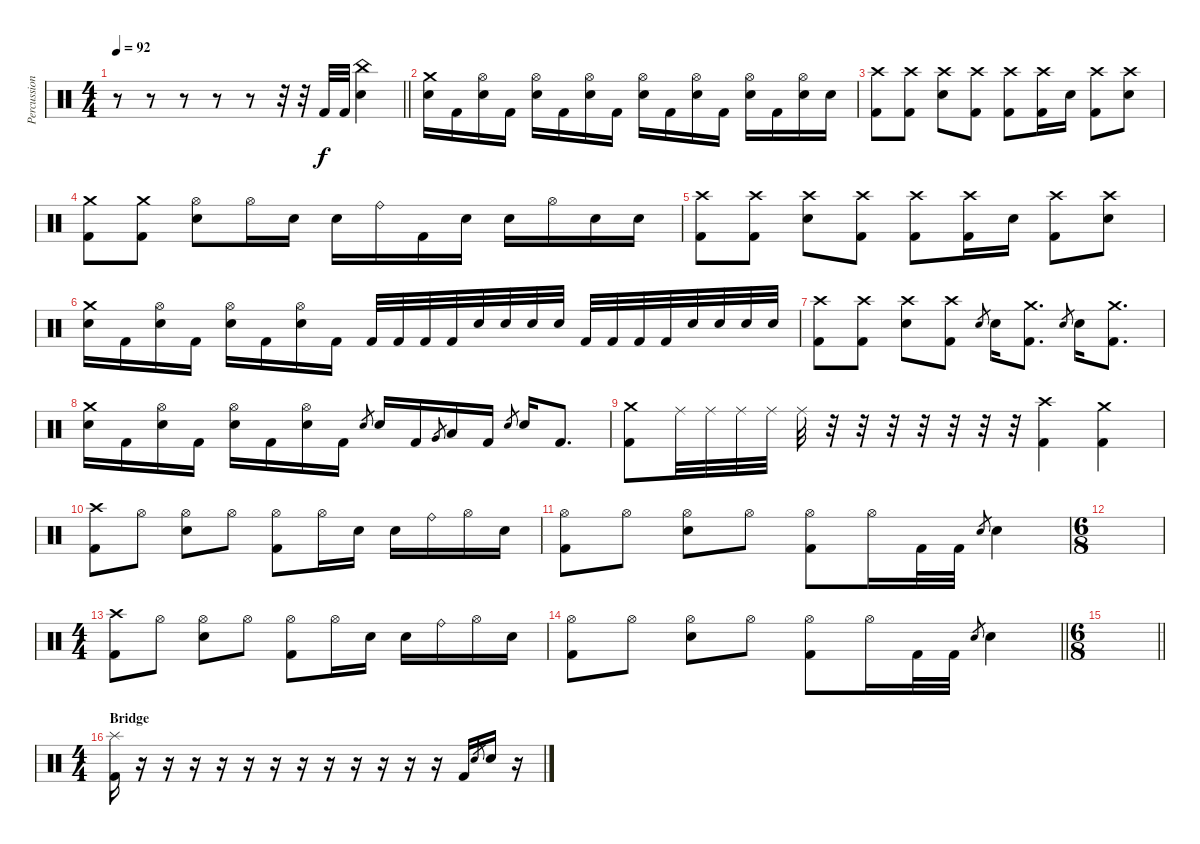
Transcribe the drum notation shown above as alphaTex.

\track ("Percussion" "Percussion") {instrument percussion}
\staff {score}
\articulation defaults
\ts (4 4)
\tempo 92
\clef neutral
\barLineRight lightlight
\ks c
r.8{dy f} r.8 r.8 r.8 r.8 r.32 r.32 "Kick (hit) 2".32 "Kick (hit) 2".32 ("China (hit)" "Electric Snare (hit)").4 |
("Crash medium (hit)" "Electric Snare (hit)").16 "Kick (hit) 2".16 ("Hi-Hat (open)" "Electric Snare (hit)").16 "Kick (hit) 2".16 ("Hi-Hat (open)" "Electric Snare (hit)").16 "Kick (hit) 2".16 ("Hi-Hat (open)" "Electric Snare (hit)").16 "Kick (hit) 2".16 ("Hi-Hat (open)" "Electric Snare (hit)").16 "Kick (hit) 2".16 ("Hi-Hat (open)" "Electric Snare (hit)").16 "Kick (hit) 2".16 ("Hi-Hat (open)" "Electric Snare (hit)").16 "Kick (hit) 2".16 ("Hi-Hat (open)" "Electric Snare (hit)").16 "Electric Snare (hit)".16 |
("Crash high (hit)" "Kick (hit) 2").8 ("Crash high (hit)" "Kick (hit) 2").8 ("Crash high (hit)" "Electric Snare (hit)").8 ("Crash high (hit)" "Kick (hit) 2").8 ("Crash high (hit)" "Kick (hit) 2").8 ("Crash high (hit)" "Kick (hit) 2").16 "Electric Snare (hit)".16 ("Crash high (hit)" "Kick (hit) 2").8 ("Crash high (hit)" "Electric Snare (hit)").8 |
("Crash medium (hit)" "Kick (hit) 2").8 ("Crash medium (hit)" "Kick (hit) 2").8 ("Hi-Hat (open)" "Electric Snare (hit)").8 "Hi-Hat (open)".16 "Electric Snare (hit)".16 "Electric Snare (hit)".16 "Ride (bell)".16 "Kick (hit) 2".16 "Electric Snare (hit)".16 "Electric Snare (hit)".16 "Hi-Hat (open)".16 "Electric Snare (hit)".16 "Electric Snare (hit)".16 |
("Crash high (hit)" "Kick (hit) 2").8 ("Crash high (hit)" "Kick (hit) 2").8 ("Crash high (hit)" "Electric Snare (hit)").8 ("Crash high (hit)" "Kick (hit) 2").8 ("Crash high (hit)" "Kick (hit) 2").8 ("Crash high (hit)" "Kick (hit) 2").16 "Electric Snare (hit)".16 ("Crash high (hit)" "Kick (hit) 2").8 ("Crash high (hit)" "Electric Snare (hit)").8 |
("Crash medium (hit)" "Electric Snare (hit)").16 "Kick (hit) 2".16 ("Hi-Hat (open)" "Electric Snare (hit)").16 "Kick (hit) 2".16 ("Hi-Hat (open)" "Electric Snare (hit)").16 "Kick (hit) 2".16 ("Hi-Hat (open)" "Electric Snare (hit)").16 "Kick (hit) 2".16 "Kick (hit) 2".32 "Kick (hit) 2".32 "Kick (hit) 2".32 "Kick (hit) 2".32 "Electric Snare (hit)".32 "Electric Snare (hit)".32 "Electric Snare (hit)".32 "Electric Snare (hit)".32 "Kick (hit) 2".32 "Kick (hit) 2".32 "Kick (hit) 2".32 "Kick (hit) 2".32 "Electric Snare (hit)".32 "Electric Snare (hit)".32 "Electric Snare (hit)".32 "Electric Snare (hit)".32 |
("Crash high (hit)" "Kick (hit) 2").8 ("Crash high (hit)" "Kick (hit) 2").8 ("Crash high (hit)" "Electric Snare (hit)").8 ("Crash high (hit)" "Kick (hit) 2").8 "Electric Snare (hit)".8{gr} "Electric Snare (hit)".16 ("Crash medium (hit)" "Kick (hit) 2").8{d} "Electric Snare (hit)".8{gr} "Electric Snare (hit)".16 ("Crash medium (hit)" "Kick (hit) 2").8{d} |
("Crash medium (hit)" "Electric Snare (hit)").16 "Kick (hit) 2".16 ("Hi-Hat (open)" "Electric Snare (hit)").16 "Kick (hit) 2".16 ("Hi-Hat (open)" "Electric Snare (hit)").16 "Kick (hit) 2".16 ("Hi-Hat (open)" "Electric Snare (hit)").16 "Kick (hit) 2".16 "Electric Snare (hit)".8{gr} "Electric Snare (hit)".16 "Kick (hit) 2".16 "Very Low Tom (hit)".8{gr} "Low Floor Tom (hit)".16 "Kick (hit) 2".16 "Electric Snare (hit)".8{gr} "Electric Snare (hit)".16 "Kick (hit) 2".8{d} |
("Crash medium (hit)" "Kick (hit) 2").8 "Ride (middle)".32 "Ride (middle)".32 "Ride (middle)".32 "Ride (middle)".32 "Ride (middle)".32 r.32 r.32 r.32 r.32 r.32 r.32 r.32 ("Crash high (hit)" "Kick (hit) 2").4 ("Crash medium (hit)" "Kick (hit) 2").4 |
("Crash high (hit)" "Kick (hit) 2").8 "Hi-Hat (open)".8 ("Hi-Hat (open)" "Electric Snare (hit)").8 "Hi-Hat (open)".8 ("Hi-Hat (open)" "Kick (hit) 2").8 "Hi-Hat (open)".16 "Electric Snare (hit)".16 "Electric Snare (hit)".16 "Ride (bell)".16 "Hi-Hat (open)".16 "Electric Snare (hit)".16 |
("Hi-Hat (open)" "Kick (hit) 2").8 "Hi-Hat (open)".8 ("Hi-Hat (open)" "Electric Snare (hit)").8 "Hi-Hat (open)".8 ("Hi-Hat (open)" "Kick (hit) 2").8 "Hi-Hat (open)".16 "Kick (hit) 2".32 "Kick (hit) 2".32 "Electric Snare (hit)".8{gr} "Electric Snare (hit)".4 |
\ts (6 8)
|
\ts (4 4)
("Crash high (hit)" "Kick (hit) 2").8 "Hi-Hat (open)".8 ("Hi-Hat (open)" "Electric Snare (hit)").8 "Hi-Hat (open)".8 ("Hi-Hat (open)" "Kick (hit) 2").8 "Hi-Hat (open)".16 "Electric Snare (hit)".16 "Electric Snare (hit)".16 "Ride (bell)".16 "Hi-Hat (open)".16 "Electric Snare (hit)".16 |
\barLineRight lightlight
("Hi-Hat (open)" "Kick (hit) 2").8 "Hi-Hat (open)".8 ("Hi-Hat (open)" "Electric Snare (hit)").8 "Hi-Hat (open)".8 ("Hi-Hat (open)" "Kick (hit) 2").8 "Hi-Hat (open)".16 "Kick (hit) 2".32 "Kick (hit) 2".32 "Electric Snare (hit)".8{gr} "Electric Snare (hit)".4 |
\ts (6 8)
\barLineRight lightlight
|
\ts (4 4)
\section ("" "Bridge")
("Splash (hit)" "Kick (hit) 2").16 r.16 r.16 r.16 r.16 r.16 r.16 r.16 r.16 r.16 r.16 r.16 r.16 "Kick (hit) 2".16 "Electric Snare (hit)".8{gr} "Electric Snare (hit)".16 r.16
